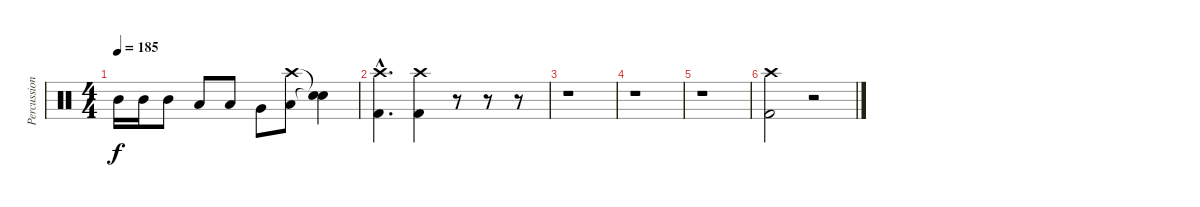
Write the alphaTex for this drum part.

\track ("Percussion" "Percussion") {instrument percussion}
\staff {score}
\articulation defaults
\ts (4 4)
\tempo 185
\clef neutral
\ks c "Mid Tom (hit)".16{dy f} "Mid Tom (hit)".16 "Mid Tom (hit)".8 "Low Tom (hit)".8 "Low Tom (hit)".8 "Very Low Tom (hit)".8
("Crash high (hit)" "Low Floor Tom (hit)").8 ("Snare (hit)"{t} "Snare (hit)"{t}).4 |
("Crash high (hit)"{hac} "Kick (hit) 2"{hac}).4{d} ("Crash high (hit)" "Kick (hit) 2").4 r.8 r.8 r.8 |
r.1 |
r.1 |
r.1 |
("Crash high (hit)" "Kick (hit) 2").2 r.2
